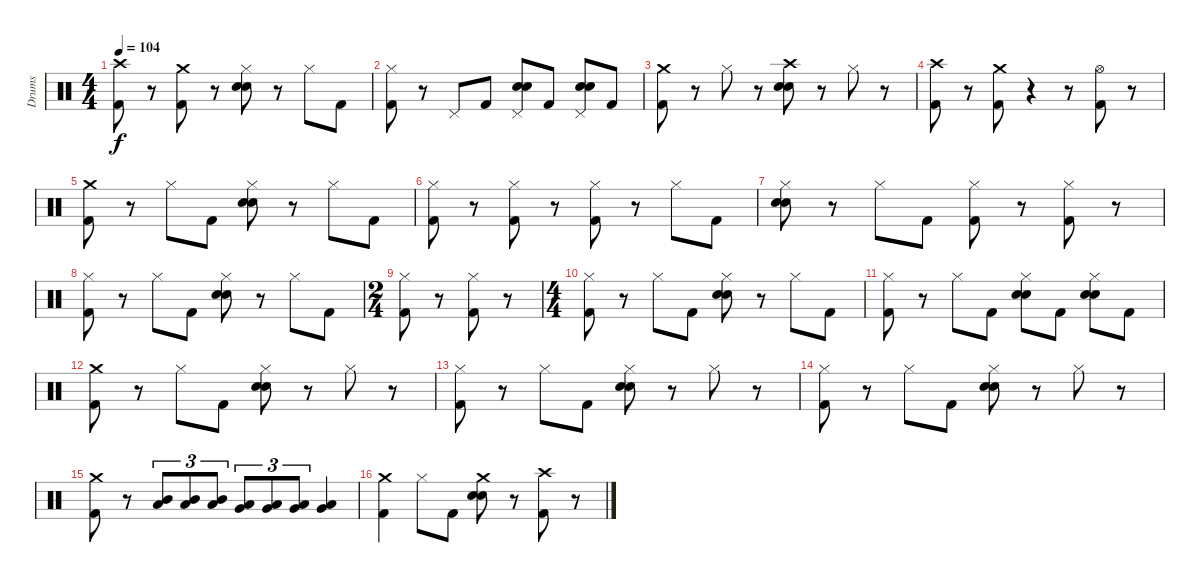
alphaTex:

\track ("Drums" "Drums") {instrument percussion}
\staff {score}
\articulation defaults
\ts (4 4)
\tempo 104
\clef neutral
\ks c
("Crash high (hit)" "Kick (hit) 2").8{dy f} r.8 ("Kick (hit) 2" "Crash medium (hit)").8 r.8 ("Hi-Hat (closed)" "Snare (hit) 2" "Electric Snare (hit)").8 r.8 "Hi-Hat (closed)".8 "Kick (hit) 2".8 |
("Hi-Hat (closed)" "Kick (hit) 2").8 r.8 "Pedal Hi-Hat (hit)".8 "Kick (hit) 2".8 ("Pedal Hi-Hat (hit)" "Snare (hit) 2" "Electric Snare (hit)").8 "Kick (hit) 2".8 ("Pedal Hi-Hat (hit)" "Snare (hit) 2" "Electric Snare (hit)").8 "Kick (hit) 2".8 |
("Crash medium (hit)" "Kick (hit) 2").8 r.8 "Hi-Hat (closed)".8 r.8 ("Crash high (hit)" "Electric Snare (hit)" "Snare (hit) 2").8 r.8 "Hi-Hat (closed)".8 r.8 |
("Crash high (hit)" "Kick (hit) 2").8 r.8 ("Crash medium (hit)" "Kick (hit) 2").8 r.4 r.8 ("Hi-Hat (open)" "Kick (hit) 2").8 r.8 |
("Crash medium (hit)" "Kick (hit) 2").8 r.8 "Hi-Hat (closed)".8 "Kick (hit) 2".8 ("Hi-Hat (closed)" "Snare (hit) 2" "Electric Snare (hit)").8 r.8 "Hi-Hat (closed)".8 "Kick (hit) 2".8 |
("Hi-Hat (closed)" "Kick (hit) 2").8 r.8 ("Hi-Hat (closed)" "Kick (hit) 2").8 r.8 ("Hi-Hat (closed)" "Kick (hit) 2").8 r.8 "Hi-Hat (closed)".8 "Kick (hit) 2".8 |
("Electric Snare (hit)" "Snare (hit) 2" "Hi-Hat (closed)").8 r.8 "Hi-Hat (closed)".8 "Kick (hit) 2".8 ("Kick (hit) 2" "Hi-Hat (closed)").8 r.8 ("Kick (hit) 2" "Hi-Hat (closed)").8 r.8 |
("Kick (hit) 2" "Hi-Hat (closed)").8 r.8 "Hi-Hat (closed)".8 "Kick (hit) 2".8 ("Snare (hit) 2" "Electric Snare (hit)" "Hi-Hat (closed)").8 r.8 "Hi-Hat (closed)".8 "Kick (hit) 2".8 |
\ts (2 4)
("Kick (hit) 2" "Hi-Hat (closed)").8 r.8 ("Kick (hit) 2" "Hi-Hat (closed)").8 r.8 |
\ts (4 4)
("Kick (hit) 2" "Hi-Hat (closed)").8 r.8 "Hi-Hat (closed)".8 "Kick (hit) 2".8 ("Electric Snare (hit)" "Snare (hit) 2" "Hi-Hat (closed)").8 r.8 "Hi-Hat (closed)".8 "Kick (hit) 2".8 |
("Kick (hit) 2" "Hi-Hat (closed)").8 r.8 "Hi-Hat (closed)".8 "Kick (hit) 2".8 ("Snare (hit) 2" "Electric Snare (hit)" "Hi-Hat (closed)").8 "Kick (hit) 2".8 ("Snare (hit) 2" "Electric Snare (hit)" "Hi-Hat (closed)").8 "Kick (hit) 2".8 |
("Crash medium (hit)" "Kick (hit) 2").8 r.8 "Hi-Hat (closed)".8 "Kick (hit) 2".8 ("Hi-Hat (closed)" "Electric Snare (hit)" "Snare (hit) 2").8 r.8 "Hi-Hat (closed)".8 r.8 |
("Hi-Hat (closed)" "Kick (hit) 2").8 r.8 "Hi-Hat (closed)".8 "Kick (hit) 2".8 ("Hi-Hat (closed)" "Electric Snare (hit)" "Snare (hit) 2").8 r.8 "Hi-Hat (closed)".8 r.8 |
("Hi-Hat (closed)" "Kick (hit) 2").8 r.8 "Hi-Hat (closed)".8 "Kick (hit) 2".8 ("Hi-Hat (closed)" "Electric Snare (hit)" "Snare (hit) 2").8 r.8 "Hi-Hat (closed)".8 r.8 |
("Crash medium (hit)" "Kick (hit) 2").8 r.8 ("Mid Tom (hit)" "Low Tom (hit)").8{tu (3 2)} ("Mid Tom (hit)" "Low Tom (hit)").8{tu (3 2)} ("Mid Tom (hit)" "Low Tom (hit)").8{tu (3 2)} ("Low Tom (hit)" "Very Low Tom (hit)").8{tu (3 2)} ("Low Tom (hit)" "Very Low Tom (hit)").8{tu (3 2)} ("Very Low Tom (hit)" "Low Floor Tom (hit)").8{tu (3 2)} ("Very Low Tom (hit)" "Low Floor Tom (hit)").4 |
("Crash medium (hit)" "Kick (hit) 2").4 "Hi-Hat (closed)".8 "Kick (hit) 2".8 ("Crash medium (hit)" "Electric Snare (hit)" "Snare (hit) 2").8 r.8 ("Crash high (hit)" "Kick (hit) 2").8 r.8
